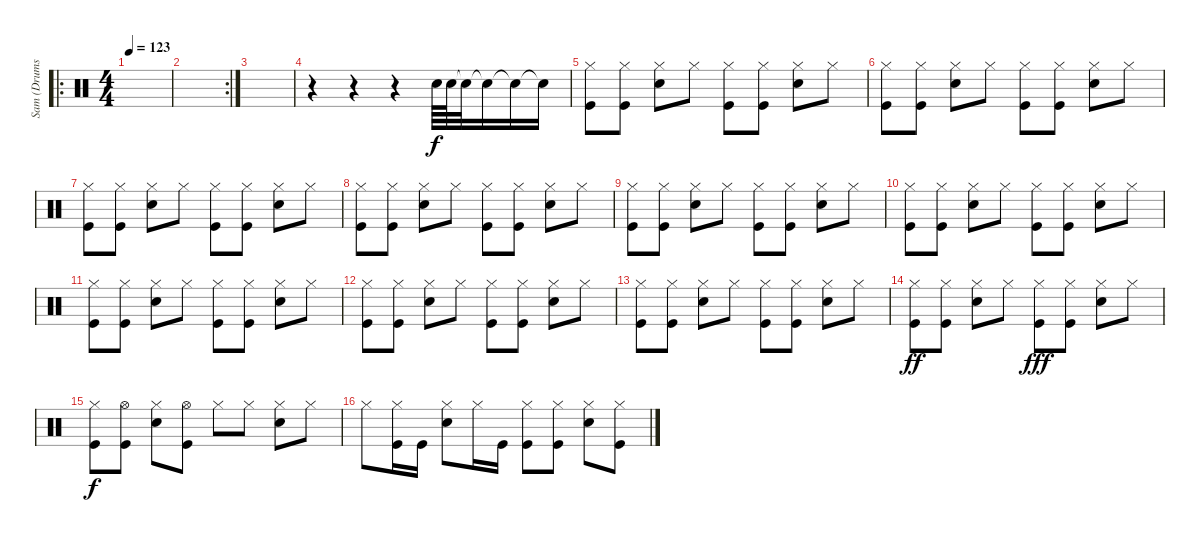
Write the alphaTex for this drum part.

\track ("Sam (Drums)" "Sam (Drums") {instrument percussion}
\staff {score}
\articulation defaults
\ro
\ts (4 4)
\tempo 123
\clef neutral
\ks c
|
\rc 2
|
|
r.4 r.4 r.4 "Snare (hit) 2".64 "Snare (hit) 2".64 "Snare (hit)"{t}.32 "Snare (hit)"{t}.16 "Snare (hit)"{t}.16 "Snare (hit)"{t}.16 |
("Hi-Hat (closed)" "Kick (hit)").8 ("Hi-Hat (closed)" "Kick (hit)").8 ("Hi-Hat (closed)" "Snare (hit) 2").8 "Hi-Hat (closed)".8 ("Hi-Hat (closed)" "Kick (hit)").8 ("Hi-Hat (closed)" "Kick (hit)").8 ("Hi-Hat (closed)" "Snare (hit) 2").8 "Hi-Hat (closed)".8 |
("Hi-Hat (closed)" "Kick (hit)").8 ("Hi-Hat (closed)" "Kick (hit)").8 ("Hi-Hat (closed)" "Snare (hit) 2").8 "Hi-Hat (closed)".8 ("Hi-Hat (closed)" "Kick (hit)").8 ("Hi-Hat (closed)" "Kick (hit)").8 ("Hi-Hat (closed)" "Snare (hit) 2").8 "Hi-Hat (closed)".8 |
("Hi-Hat (closed)" "Kick (hit)").8 ("Hi-Hat (closed)" "Kick (hit)").8 ("Hi-Hat (closed)" "Snare (hit) 2").8 "Hi-Hat (closed)".8 ("Hi-Hat (closed)" "Kick (hit)").8 ("Hi-Hat (closed)" "Kick (hit)").8 ("Hi-Hat (closed)" "Snare (hit) 2").8 "Hi-Hat (closed)".8 |
("Hi-Hat (closed)" "Kick (hit)").8 ("Hi-Hat (closed)" "Kick (hit)").8 ("Hi-Hat (closed)" "Snare (hit) 2").8 "Hi-Hat (closed)".8 ("Hi-Hat (closed)" "Kick (hit)").8 ("Hi-Hat (closed)" "Kick (hit)").8 ("Hi-Hat (closed)" "Snare (hit) 2").8 "Hi-Hat (closed)".8 |
("Hi-Hat (closed)" "Kick (hit)").8 ("Hi-Hat (closed)" "Kick (hit)").8 ("Hi-Hat (closed)" "Snare (hit) 2").8 "Hi-Hat (closed)".8 ("Hi-Hat (closed)" "Kick (hit)").8 ("Hi-Hat (closed)" "Kick (hit)").8 ("Hi-Hat (closed)" "Snare (hit) 2").8 "Hi-Hat (closed)".8 |
("Hi-Hat (closed)" "Kick (hit)").8 ("Hi-Hat (closed)" "Kick (hit)").8 ("Hi-Hat (closed)" "Snare (hit) 2").8 "Hi-Hat (closed)".8 ("Hi-Hat (closed)" "Kick (hit)").8 ("Hi-Hat (closed)" "Kick (hit)").8 ("Hi-Hat (closed)" "Snare (hit) 2").8 "Hi-Hat (closed)".8 |
("Hi-Hat (closed)" "Kick (hit)").8 ("Hi-Hat (closed)" "Kick (hit)").8 ("Hi-Hat (closed)" "Snare (hit) 2").8 "Hi-Hat (closed)".8 ("Hi-Hat (closed)" "Kick (hit)").8 ("Hi-Hat (closed)" "Kick (hit)").8 ("Hi-Hat (closed)" "Snare (hit) 2").8 "Hi-Hat (closed)".8 |
("Hi-Hat (closed)" "Kick (hit)").8 ("Hi-Hat (closed)" "Kick (hit)").8 ("Hi-Hat (closed)" "Snare (hit) 2").8 "Hi-Hat (closed)".8 ("Hi-Hat (closed)" "Kick (hit)").8 ("Hi-Hat (closed)" "Kick (hit)").8 ("Hi-Hat (closed)" "Snare (hit) 2").8 "Hi-Hat (closed)".8 |
("Hi-Hat (closed)" "Kick (hit)").8 ("Hi-Hat (closed)" "Kick (hit)").8 ("Hi-Hat (closed)" "Snare (hit) 2").8 "Hi-Hat (closed)".8 ("Hi-Hat (closed)" "Kick (hit)").8 ("Hi-Hat (closed)" "Kick (hit)").8 ("Hi-Hat (closed)" "Snare (hit) 2").8 "Hi-Hat (closed)".8 |
("Hi-Hat (closed)" "Kick (hit)").8{dy ff} ("Hi-Hat (closed)" "Kick (hit)").8 ("Hi-Hat (closed)" "Snare (hit) 2").8 "Hi-Hat (closed)".8 ("Hi-Hat (closed)" "Kick (hit)").8{dy fff} ("Hi-Hat (closed)" "Kick (hit)").8 ("Hi-Hat (closed)" "Snare (hit) 2").8 "Hi-Hat (closed)".8 |
("Hi-Hat (closed)" "Kick (hit)").8{dy f} ("Hi-Hat (open)" "Kick (hit)").8 ("Hi-Hat (closed)" "Snare (hit) 2").8 ("Hi-Hat (open)" "Kick (hit)").8 "Hi-Hat (closed)".8 "Hi-Hat (closed)".8 ("Hi-Hat (closed)" "Snare (hit) 2").8 "Hi-Hat (closed)".8 |
"Hi-Hat (closed)".8 ("Hi-Hat (closed)" "Kick (hit)").16 "Kick (hit)".16 ("Hi-Hat (closed)" "Snare (hit) 2").8 "Hi-Hat (closed)".16 "Kick (hit)".16 ("Hi-Hat (closed)" "Kick (hit)").8 ("Hi-Hat (closed)" "Kick (hit)").8 ("Hi-Hat (closed)" "Snare (hit) 2").8 ("Hi-Hat (closed)" "Kick (hit)").8
